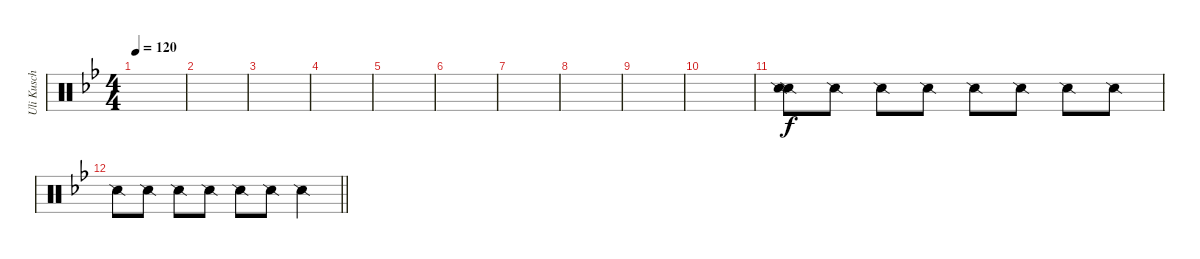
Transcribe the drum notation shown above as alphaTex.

\track ("Uli Kusch" "Uli Kusch") {instrument percussion}
\staff {score}
\articulation defaults
\ts (4 4)
\tempo 120
\clef neutral
\ks gminor
|
|
|
|
|
|
|
|
|
|
("Snare (side stick) 2" "Snare (side stick) 2").8 "Snare (side stick) 2".8 "Snare (side stick) 2".8 "Snare (side stick) 2".8 "Snare (side stick) 2".8 "Snare (side stick) 2".8 "Snare (side stick) 2".8 "Snare (side stick) 2".8 |
\barLineRight lightlight "Snare (side stick) 2".8 "Snare (side stick) 2".8 "Snare (side stick) 2".8 "Snare (side stick) 2".8 "Snare (side stick) 2".8 "Snare (side stick) 2".8 "Snare (side stick) 2".4
